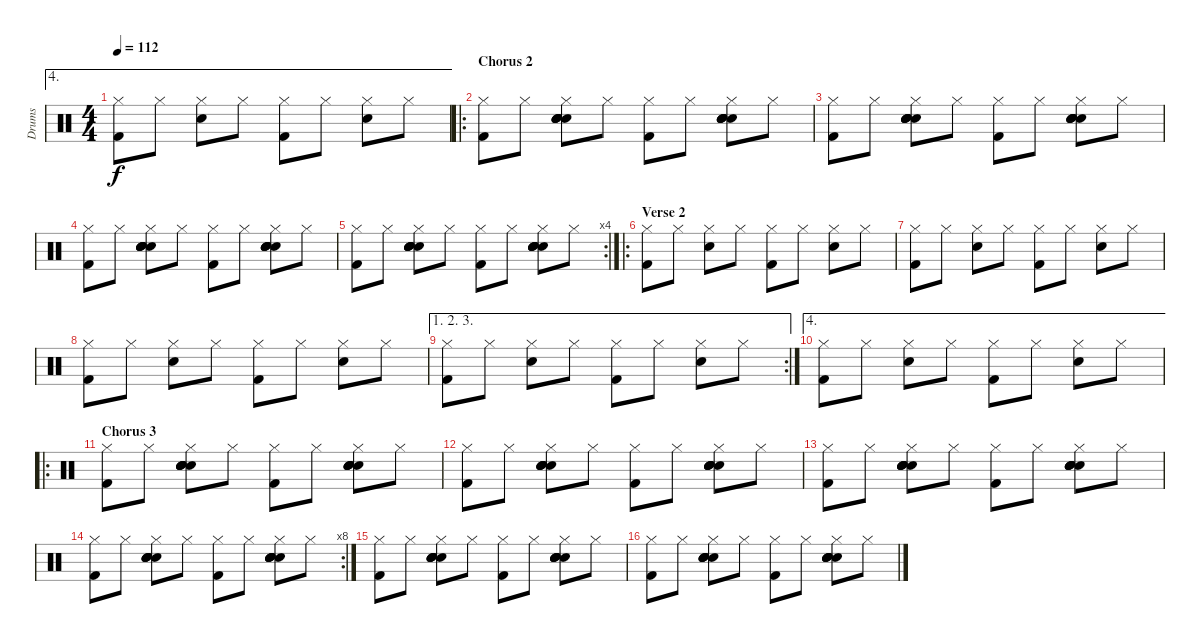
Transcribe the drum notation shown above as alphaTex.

\track ("Drums" "Drums") {instrument percussion}
\staff {score}
\articulation defaults
\ae 4
\ts (4 4)
\tempo 112
\clef neutral
\ks c
("Hi-Hat (closed)" "Kick (hit) 2").8{dy f} "Hi-Hat (closed)".8 ("Hi-Hat (closed)" "Snare (hit) 2").8 "Hi-Hat (closed)".8 ("Hi-Hat (closed)" "Kick (hit) 2").8 "Hi-Hat (closed)".8 ("Hi-Hat (closed)" "Snare (hit) 2").8 "Hi-Hat (closed)".8 |
\ro
\section ("" "Chorus 2")
("Hi-Hat (closed)" "Kick (hit) 2").8 "Hi-Hat (closed)".8 ("Hand Clap (hit)" "Hand Clap (hit)" "Hand Clap (hit)" "Hand Clap (hit)" "Hi-Hat (closed)" "Snare (hit) 2").8 "Hi-Hat (closed)".8 ("Hi-Hat (closed)" "Kick (hit) 2").8 "Hi-Hat (closed)".8 ("Hand Clap (hit)" "Hand Clap (hit)" "Hand Clap (hit)" "Hand Clap (hit)" "Hi-Hat (closed)" "Snare (hit) 2").8 "Hi-Hat (closed)".8 |
("Hi-Hat (closed)" "Kick (hit) 2").8 "Hi-Hat (closed)".8 ("Hand Clap (hit)" "Hand Clap (hit)" "Hand Clap (hit)" "Hand Clap (hit)" "Hi-Hat (closed)" "Snare (hit) 2").8 "Hi-Hat (closed)".8 ("Hi-Hat (closed)" "Kick (hit) 2").8 "Hi-Hat (closed)".8 ("Hand Clap (hit)" "Hand Clap (hit)" "Hand Clap (hit)" "Hand Clap (hit)" "Hi-Hat (closed)" "Snare (hit) 2").8 "Hi-Hat (closed)".8 |
("Hi-Hat (closed)" "Kick (hit) 2").8 "Hi-Hat (closed)".8 ("Hand Clap (hit)" "Hand Clap (hit)" "Hand Clap (hit)" "Hand Clap (hit)" "Hi-Hat (closed)" "Snare (hit) 2").8 "Hi-Hat (closed)".8 ("Hi-Hat (closed)" "Kick (hit) 2").8 "Hi-Hat (closed)".8 ("Hand Clap (hit)" "Hand Clap (hit)" "Hand Clap (hit)" "Hand Clap (hit)" "Hi-Hat (closed)" "Snare (hit) 2").8 "Hi-Hat (closed)".8 |
\rc 4
("Hi-Hat (closed)" "Kick (hit) 2").8 "Hi-Hat (closed)".8 ("Hand Clap (hit)" "Hand Clap (hit)" "Hand Clap (hit)" "Hand Clap (hit)" "Hi-Hat (closed)" "Snare (hit) 2").8 "Hi-Hat (closed)".8 ("Hi-Hat (closed)" "Kick (hit) 2").8 "Hi-Hat (closed)".8 ("Hand Clap (hit)" "Hand Clap (hit)" "Hand Clap (hit)" "Hand Clap (hit)" "Hi-Hat (closed)" "Snare (hit) 2").8 "Hi-Hat (closed)".8 |
\ro
\section ("" "Verse 2")
("Hi-Hat (closed)" "Kick (hit) 2").8 "Hi-Hat (closed)".8 ("Hi-Hat (closed)" "Snare (hit) 2").8 "Hi-Hat (closed)".8 ("Hi-Hat (closed)" "Kick (hit) 2").8 "Hi-Hat (closed)".8 ("Hi-Hat (closed)" "Snare (hit) 2").8 "Hi-Hat (closed)".8 |
("Hi-Hat (closed)" "Kick (hit) 2").8 "Hi-Hat (closed)".8 ("Hi-Hat (closed)" "Snare (hit) 2").8 "Hi-Hat (closed)".8 ("Hi-Hat (closed)" "Kick (hit) 2").8 "Hi-Hat (closed)".8 ("Hi-Hat (closed)" "Snare (hit) 2").8 "Hi-Hat (closed)".8 |
("Hi-Hat (closed)" "Kick (hit) 2").8 "Hi-Hat (closed)".8 ("Hi-Hat (closed)" "Snare (hit) 2").8 "Hi-Hat (closed)".8 ("Hi-Hat (closed)" "Kick (hit) 2").8 "Hi-Hat (closed)".8 ("Hi-Hat (closed)" "Snare (hit) 2").8 "Hi-Hat (closed)".8 |
\ae (1 2 3)
\rc 2
("Hi-Hat (closed)" "Kick (hit) 2").8 "Hi-Hat (closed)".8 ("Hi-Hat (closed)" "Snare (hit) 2").8 "Hi-Hat (closed)".8 ("Hi-Hat (closed)" "Kick (hit) 2").8 "Hi-Hat (closed)".8 ("Hi-Hat (closed)" "Snare (hit) 2").8 "Hi-Hat (closed)".8 |
\ae 4
("Hi-Hat (closed)" "Kick (hit) 2").8 "Hi-Hat (closed)".8 ("Hi-Hat (closed)" "Snare (hit) 2").8 "Hi-Hat (closed)".8 ("Hi-Hat (closed)" "Kick (hit) 2").8 "Hi-Hat (closed)".8 ("Hi-Hat (closed)" "Snare (hit) 2").8 "Hi-Hat (closed)".8 |
\ro
\section ("" "Chorus 3")
("Hi-Hat (closed)" "Kick (hit) 2").8 "Hi-Hat (closed)".8 ("Hand Clap (hit)" "Hand Clap (hit)" "Hand Clap (hit)" "Hand Clap (hit)" "Hi-Hat (closed)" "Snare (hit) 2").8 "Hi-Hat (closed)".8 ("Hi-Hat (closed)" "Kick (hit) 2").8 "Hi-Hat (closed)".8 ("Hand Clap (hit)" "Hand Clap (hit)" "Hand Clap (hit)" "Hand Clap (hit)" "Hi-Hat (closed)" "Snare (hit) 2").8 "Hi-Hat (closed)".8 |
("Hi-Hat (closed)" "Kick (hit) 2").8 "Hi-Hat (closed)".8 ("Hand Clap (hit)" "Hand Clap (hit)" "Hand Clap (hit)" "Hand Clap (hit)" "Hi-Hat (closed)" "Snare (hit) 2").8 "Hi-Hat (closed)".8 ("Hi-Hat (closed)" "Kick (hit) 2").8 "Hi-Hat (closed)".8 ("Hand Clap (hit)" "Hand Clap (hit)" "Hand Clap (hit)" "Hand Clap (hit)" "Hi-Hat (closed)" "Snare (hit) 2").8 "Hi-Hat (closed)".8 |
("Hi-Hat (closed)" "Kick (hit) 2").8 "Hi-Hat (closed)".8 ("Hand Clap (hit)" "Hand Clap (hit)" "Hand Clap (hit)" "Hand Clap (hit)" "Hi-Hat (closed)" "Snare (hit) 2").8 "Hi-Hat (closed)".8 ("Hi-Hat (closed)" "Kick (hit) 2").8 "Hi-Hat (closed)".8 ("Hand Clap (hit)" "Hand Clap (hit)" "Hand Clap (hit)" "Hand Clap (hit)" "Hi-Hat (closed)" "Snare (hit) 2").8 "Hi-Hat (closed)".8 |
\rc 8
("Hi-Hat (closed)" "Kick (hit) 2").8 "Hi-Hat (closed)".8 ("Hand Clap (hit)" "Hand Clap (hit)" "Hand Clap (hit)" "Hand Clap (hit)" "Hi-Hat (closed)" "Snare (hit) 2").8 "Hi-Hat (closed)".8 ("Hi-Hat (closed)" "Kick (hit) 2").8 "Hi-Hat (closed)".8 ("Hand Clap (hit)" "Hand Clap (hit)" "Hand Clap (hit)" "Hand Clap (hit)" "Hi-Hat (closed)" "Snare (hit) 2").8 "Hi-Hat (closed)".8 |
("Hi-Hat (closed)" "Kick (hit) 2").8{volume 0} "Hi-Hat (closed)".8 ("Hand Clap (hit)" "Hand Clap (hit)" "Hand Clap (hit)" "Hand Clap (hit)" "Hi-Hat (closed)" "Snare (hit) 2").8 "Hi-Hat (closed)".8 ("Hi-Hat (closed)" "Kick (hit) 2").8 "Hi-Hat (closed)".8 ("Hand Clap (hit)" "Hand Clap (hit)" "Hand Clap (hit)" "Hand Clap (hit)" "Hi-Hat (closed)" "Snare (hit) 2").8 "Hi-Hat (closed)".8 |
("Hi-Hat (closed)" "Kick (hit) 2").8 "Hi-Hat (closed)".8 ("Hand Clap (hit)" "Hand Clap (hit)" "Hand Clap (hit)" "Hand Clap (hit)" "Hi-Hat (closed)" "Snare (hit) 2").8 "Hi-Hat (closed)".8 ("Hi-Hat (closed)" "Kick (hit) 2").8 "Hi-Hat (closed)".8 ("Hand Clap (hit)" "Hand Clap (hit)" "Hand Clap (hit)" "Hand Clap (hit)" "Hi-Hat (closed)" "Snare (hit) 2").8 "Hi-Hat (closed)".8
